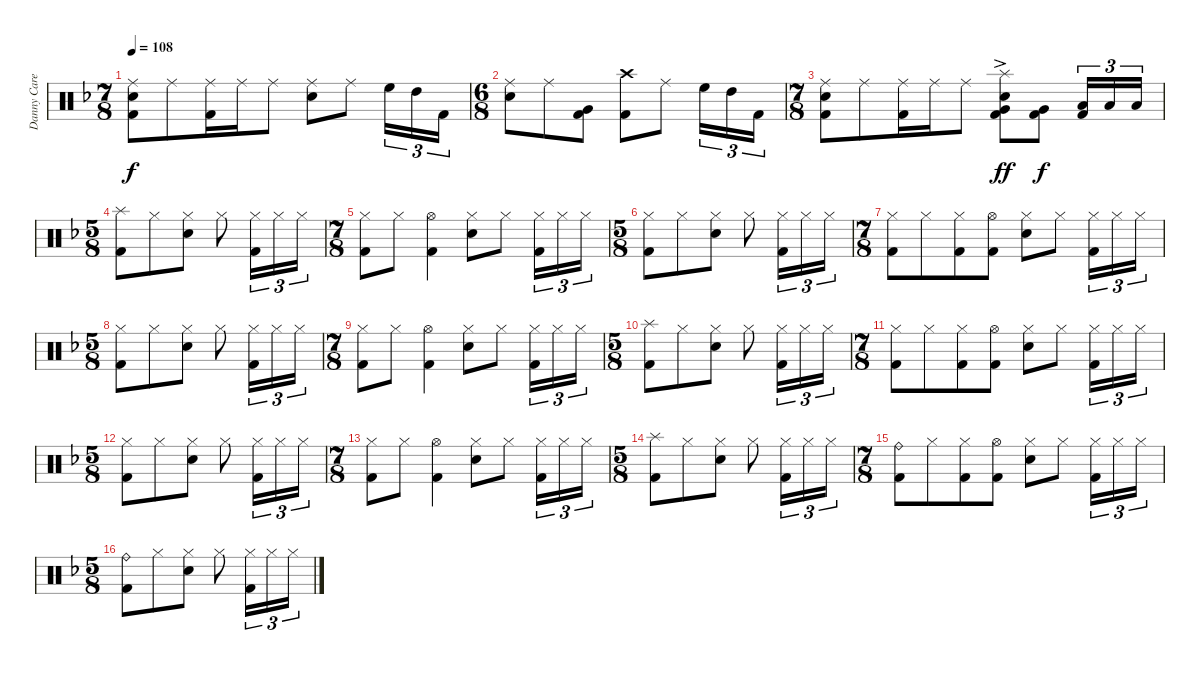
\track ("Danny Carey" "Danny Care") {instrument percussion}
\staff {score}
\articulation defaults
\ts (7 8)
\tempo 108
\clef neutral
\ks dminor
("Ride (middle)" "Electric Snare (hit)" "Kick (hit) 2").8{dy f} "Ride (middle)".8 ("Ride (middle)" "Kick (hit) 2").16 "Ride (middle)".16 "Ride (middle)".8 ("Ride (middle)" "Electric Snare (hit)").8 "Ride (middle)".8 "High Floor Tom (hit)".16{tu (3 2)} "High Tom (hit)".16{tu (3 2)} "Kick (hit) 2".16{tu (3 2)} |
\ts (6 8)
("Ride (middle)" "Electric Snare (hit)").8 "Ride (middle)".8 ("Very Low Tom (hit)" "Kick (hit) 2").8 ("Crash high (hit)" "Kick (hit) 2").8 "Ride (middle)".8 "High Floor Tom (hit)".16{tu (3 2)} "High Tom (hit)".16{tu (3 2)} "Kick (hit) 2".16{tu (3 2)} |
\ts (7 8)
("Ride (middle)" "Electric Snare (hit)" "Kick (hit) 2").8 "Ride (middle)".8 ("Ride (middle)" "Kick (hit) 2").16 "Ride (middle)".16 "Ride (middle)".8 ("Splash (hit)" "Very Low Tom (hit)" "Electric Snare (hit)" "Kick (hit) 2"{ac}).8{dy ff} ("Very Low Tom (hit)" "Kick (hit) 2").8{dy f} ("Low Floor Tom (hit)" "Kick (hit) 2").16{tu (3 2)} "Low Floor Tom (hit)".16{tu (3 2)} "Low Floor Tom (hit)".16{tu (3 2)} |
\ts (5 8)
("Splash (hit)" "Kick (hit) 2").8 "Hi-Hat (closed)".8 ("Hi-Hat (closed)" "Electric Snare (hit)").8 "Hi-Hat (closed)".8 ("Hi-Hat (closed)" "Kick (hit) 2").16{tu (3 2)} "Hi-Hat (closed)".16{tu (3 2)} "Hi-Hat (closed)".16{tu (3 2)} |
\ts (7 8)
("Hi-Hat (closed)" "Kick (hit) 2").8 "Hi-Hat (closed)".8 ("Hi-Hat (open)" "Kick (hit) 2").4 ("Hi-Hat (closed)" "Electric Snare (hit)").8 "Hi-Hat (closed)".8 ("Hi-Hat (closed)" "Kick (hit) 2").16{tu (3 2)} "Hi-Hat (closed)".16{tu (3 2)} "Hi-Hat (closed)".16{tu (3 2)} |
\ts (5 8)
("Hi-Hat (closed)" "Kick (hit) 2").8 "Hi-Hat (closed)".8 ("Hi-Hat (closed)" "Electric Snare (hit)").8 "Hi-Hat (closed)".8 ("Hi-Hat (closed)" "Kick (hit) 2").16{tu (3 2)} "Hi-Hat (closed)".16{tu (3 2)} "Hi-Hat (closed)".16{tu (3 2)} |
\ts (7 8)
("Hi-Hat (closed)" "Kick (hit) 2").8 "Hi-Hat (closed)".8 ("Hi-Hat (closed)" "Kick (hit) 2").8 ("Hi-Hat (open)" "Kick (hit) 2").8 ("Hi-Hat (closed)" "Electric Snare (hit)").8 "Hi-Hat (closed)".8 ("Hi-Hat (closed)" "Kick (hit) 2").16{tu (3 2)} "Hi-Hat (closed)".16{tu (3 2)} "Hi-Hat (closed)".16{tu (3 2)} |
\ts (5 8)
("Hi-Hat (closed)" "Kick (hit) 2").8 "Hi-Hat (closed)".8 ("Hi-Hat (closed)" "Electric Snare (hit)").8 "Hi-Hat (closed)".8 ("Hi-Hat (closed)" "Kick (hit) 2").16{tu (3 2)} "Hi-Hat (closed)".16{tu (3 2)} "Hi-Hat (closed)".16{tu (3 2)} |
\ts (7 8)
("Hi-Hat (closed)" "Kick (hit) 2").8 "Hi-Hat (closed)".8 ("Hi-Hat (open)" "Kick (hit) 2").4 ("Hi-Hat (closed)" "Electric Snare (hit)").8 "Hi-Hat (closed)".8 ("Hi-Hat (closed)" "Kick (hit) 2").16{tu (3 2)} "Hi-Hat (closed)".16{tu (3 2)} "Hi-Hat (closed)".16{tu (3 2)} |
\ts (5 8)
("Splash (hit)" "Kick (hit) 2").8 "Hi-Hat (closed)".8 ("Hi-Hat (closed)" "Electric Snare (hit)").8 "Hi-Hat (closed)".8 ("Hi-Hat (closed)" "Kick (hit) 2").16{tu (3 2)} "Hi-Hat (closed)".16{tu (3 2)} "Hi-Hat (closed)".16{tu (3 2)} |
\ts (7 8)
("Hi-Hat (closed)" "Kick (hit) 2").8 "Hi-Hat (closed)".8 ("Hi-Hat (closed)" "Kick (hit) 2").8 ("Hi-Hat (open)" "Kick (hit) 2").8 ("Hi-Hat (closed)" "Electric Snare (hit)").8 "Hi-Hat (closed)".8 ("Hi-Hat (closed)" "Kick (hit) 2").16{tu (3 2)} "Hi-Hat (closed)".16{tu (3 2)} "Hi-Hat (closed)".16{tu (3 2)} |
\ts (5 8)
("Hi-Hat (closed)" "Kick (hit) 2").8 "Hi-Hat (closed)".8 ("Hi-Hat (closed)" "Electric Snare (hit)").8 "Hi-Hat (closed)".8 ("Hi-Hat (closed)" "Kick (hit) 2").16{tu (3 2)} "Hi-Hat (closed)".16{tu (3 2)} "Hi-Hat (closed)".16{tu (3 2)} |
\ts (7 8)
("Hi-Hat (closed)" "Kick (hit) 2").8 "Hi-Hat (closed)".8 ("Hi-Hat (open)" "Kick (hit) 2").4 ("Hi-Hat (closed)" "Electric Snare (hit)").8 "Hi-Hat (closed)".8 ("Hi-Hat (closed)" "Kick (hit) 2").16{tu (3 2)} "Hi-Hat (closed)".16{tu (3 2)} "Hi-Hat (closed)".16{tu (3 2)} |
\ts (5 8)
("Splash (hit)" "Kick (hit) 2").8 "Hi-Hat (closed)".8 ("Hi-Hat (closed)" "Electric Snare (hit)").8 "Hi-Hat (closed)".8 ("Hi-Hat (closed)" "Kick (hit) 2").16{tu (3 2)} "Hi-Hat (closed)".16{tu (3 2)} "Hi-Hat (closed)".16{tu (3 2)} |
\ts (7 8)
("Ride (bell)" "Kick (hit) 2").8 "Hi-Hat (closed)".8 ("Hi-Hat (closed)" "Kick (hit) 2").8 ("Hi-Hat (open)" "Kick (hit) 2").8 ("Hi-Hat (closed)" "Electric Snare (hit)").8 "Hi-Hat (closed)".8 ("Hi-Hat (closed)" "Kick (hit) 2").16{tu (3 2)} "Hi-Hat (closed)".16{tu (3 2)} "Hi-Hat (closed)".16{tu (3 2)} |
\ts (5 8)
("Ride (bell)" "Kick (hit) 2").8 "Hi-Hat (closed)".8 ("Hi-Hat (closed)" "Electric Snare (hit)").8 "Hi-Hat (closed)".8 ("Hi-Hat (closed)" "Kick (hit) 2").16{tu (3 2)} "Hi-Hat (closed)".16{tu (3 2)} "Hi-Hat (closed)".16{tu (3 2)}
